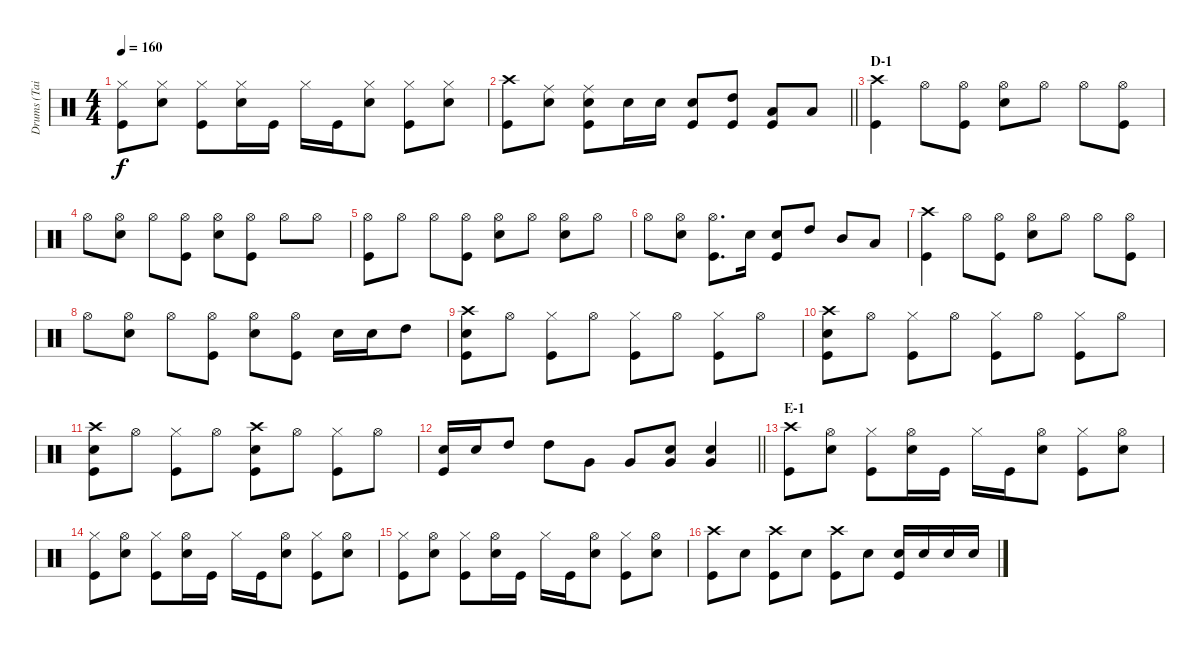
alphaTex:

\track ("Drums (Tainaka Ritsu)" "Drums (Tai") {instrument percussion}
\staff {score}
\articulation defaults
\ts (4 4)
\tempo 160
\clef neutral
\ks c
("Hi-Hat (closed)" "Kick (hit)").8{dy f} ("Hi-Hat (closed)" "Snare (hit) 2").8 ("Hi-Hat (closed)" "Kick (hit)").8 ("Hi-Hat (closed)" "Snare (hit) 2").16 "Kick (hit)".16 "Hi-Hat (closed)".16 "Kick (hit)".16 ("Hi-Hat (closed)" "Snare (hit) 2").8 ("Hi-Hat (closed)" "Kick (hit)").8 ("Hi-Hat (closed)" "Snare (hit) 2").8 |
\barLineRight lightlight
("Crash high (hit)" "Kick (hit)").8 ("Ride (middle)" "Snare (hit) 2").8 ("Ride (middle)" "Snare (hit) 2" "Kick (hit)").8 "Snare (hit) 2".16 "Snare (hit) 2".16 ("Snare (hit) 2" "Kick (hit)").8 ("High Tom (hit)" "Kick (hit)").8 ("Low Tom (hit)" "Kick (hit)").8 "Low Tom (hit)".8 |
\section ("" "D-1")
("Crash high (hit)" "Kick (hit)").4 "Hi-Hat (open)".8 ("Hi-Hat (open)" "Kick (hit)").8 ("Hi-Hat (open)" "Snare (hit) 2").8 "Hi-Hat (open)".8 "Hi-Hat (open)".8 ("Hi-Hat (open)" "Kick (hit)").8 |
"Hi-Hat (open)".8 ("Hi-Hat (open)" "Snare (hit) 2").8 "Hi-Hat (open)".8 ("Hi-Hat (open)" "Kick (hit)").8 ("Hi-Hat (open)" "Snare (hit) 2").8 ("Hi-Hat (open)" "Kick (hit)").8 "Hi-Hat (open)".8 "Hi-Hat (open)".8 |
("Hi-Hat (open)" "Kick (hit)").8 "Hi-Hat (open)".8 "Hi-Hat (open)".8 ("Hi-Hat (open)" "Kick (hit)").8 ("Hi-Hat (open)" "Snare (hit) 2").8 "Hi-Hat (open)".8 ("Hi-Hat (open)" "Snare (hit) 2").8 "Hi-Hat (open)".8 |
"Hi-Hat (open)".8 ("Hi-Hat (open)" "Snare (hit) 2").8 ("Hi-Hat (open)" "Kick (hit)").8{d} "Snare (hit) 2".16 ("Snare (hit) 2" "Kick (hit)").8 "High Tom (hit)".8 "Mid Tom (hit)".8 "Low Tom (hit)".8 |
("Crash high (hit)" "Kick (hit)").4 "Hi-Hat (open)".8 ("Hi-Hat (open)" "Kick (hit)").8 ("Hi-Hat (open)" "Snare (hit) 2").8 "Hi-Hat (open)".8 "Hi-Hat (open)".8 ("Hi-Hat (open)" "Kick (hit)").8 |
"Hi-Hat (open)".8 ("Hi-Hat (open)" "Snare (hit) 2").8 "Hi-Hat (open)".8 ("Hi-Hat (open)" "Kick (hit)").8 ("Hi-Hat (open)" "Snare (hit) 2").8 ("Hi-Hat (open)" "Kick (hit)").8 "Snare (hit) 2".16 "Snare (hit) 2".16 "High Tom (hit)".8 |
("Crash high (hit)" "Snare (hit) 2" "Kick (hit)").8 "Hi-Hat (open)".8 ("Hi-Hat (closed)" "Kick (hit)").8 "Hi-Hat (open)".8 ("Hi-Hat (closed)" "Kick (hit)").8 "Hi-Hat (open)".8 ("Hi-Hat (closed)" "Kick (hit)").8 "Hi-Hat (open)".8 |
("Crash high (hit)" "Snare (hit) 2" "Kick (hit)").8 "Hi-Hat (open)".8 ("Hi-Hat (closed)" "Kick (hit)").8 "Hi-Hat (open)".8 ("Hi-Hat (closed)" "Kick (hit)").8 "Hi-Hat (open)".8 ("Hi-Hat (closed)" "Kick (hit)").8 "Hi-Hat (open)".8 |
("Crash high (hit)" "Snare (hit) 2" "Kick (hit)").8 "Hi-Hat (open)".8 ("Hi-Hat (closed)" "Kick (hit)").8 "Hi-Hat (open)".8 ("Crash high (hit)" "Snare (hit) 2" "Kick (hit)").8 "Hi-Hat (open)".8 ("Hi-Hat (closed)" "Kick (hit)").8 "Hi-Hat (open)".8 |
\barLineRight lightlight
("Snare (hit) 2" "Kick (hit)").16 "Snare (hit) 2".16 "High Tom (hit)".8 "High Tom (hit)".8 "Very Low Tom (hit)".8 "Very Low Tom (hit)".8 ("Snare (hit) 2" "Very Low Tom (hit)").8 ("Snare (hit) 2" "Very Low Tom (hit)").4 |
\section ("" "E-1")
("Crash high (hit)" "Kick (hit)").8 ("Hi-Hat (open)" "Snare (hit) 2").8 ("Hi-Hat (closed)" "Kick (hit)").8 ("Hi-Hat (open)" "Snare (hit) 2").16 "Kick (hit)".16 "Hi-Hat (closed)".16 "Kick (hit)".16 ("Hi-Hat (open)" "Snare (hit) 2").8 ("Hi-Hat (closed)" "Kick (hit)").8 ("Hi-Hat (open)" "Snare (hit) 2").8 |
("Hi-Hat (closed)" "Kick (hit)").8 ("Hi-Hat (open)" "Snare (hit) 2").8 ("Hi-Hat (closed)" "Kick (hit)").8 ("Hi-Hat (open)" "Snare (hit) 2").16 "Kick (hit)".16 "Hi-Hat (closed)".16 "Kick (hit)".16 ("Hi-Hat (open)" "Snare (hit) 2").8 ("Hi-Hat (closed)" "Kick (hit)").8 ("Hi-Hat (open)" "Snare (hit) 2").8 |
("Hi-Hat (closed)" "Kick (hit)").8 ("Hi-Hat (open)" "Snare (hit) 2").8 ("Hi-Hat (closed)" "Kick (hit)").8 ("Hi-Hat (open)" "Snare (hit) 2").16 "Kick (hit)".16 "Hi-Hat (closed)".16 "Kick (hit)".16 ("Hi-Hat (open)" "Snare (hit) 2").8 ("Hi-Hat (closed)" "Kick (hit)").8 ("Hi-Hat (open)" "Snare (hit) 2").8 |
("Crash high (hit)" "Kick (hit)").8 "Snare (hit) 2".8 ("Crash high (hit)" "Kick (hit)").8 "Snare (hit) 2".8 ("Crash high (hit)" "Kick (hit)").8 "Snare (hit) 2".8 ("Snare (hit) 2" "Kick (hit)").16 "Snare (hit) 2".16 "Snare (hit) 2".16 "Snare (hit) 2".16
